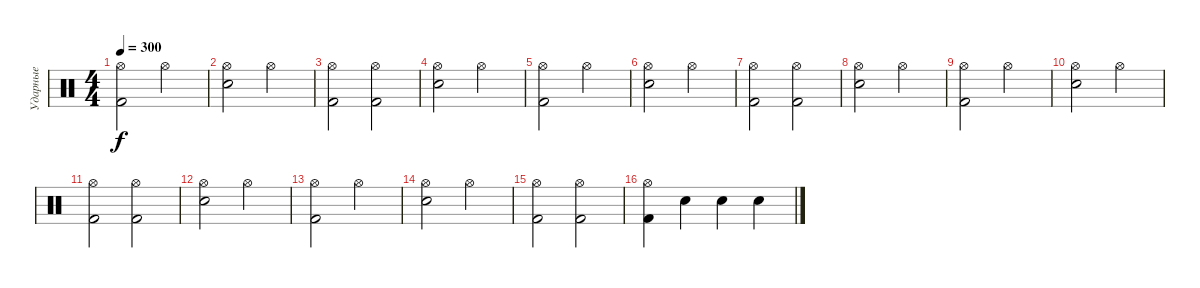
\track ("Ударные" "Ударные") {instrument percussion}
\staff {score}
\articulation defaults
\ts (4 4)
\tempo 300
\clef neutral
\ks c
("Hi-Hat (open)" "Kick (hit) 2").2{dy f} "Hi-Hat (open)".2 |
("Hi-Hat (open)" "Snare (hit) 2").2 "Hi-Hat (open)".2 |
("Hi-Hat (open)" "Kick (hit) 2").2 ("Hi-Hat (open)" "Kick (hit) 2").2 |
("Hi-Hat (open)" "Snare (hit) 2").2 "Hi-Hat (open)".2 |
("Hi-Hat (open)" "Kick (hit) 2").2 "Hi-Hat (open)".2 |
("Hi-Hat (open)" "Snare (hit) 2").2 "Hi-Hat (open)".2 |
("Hi-Hat (open)" "Kick (hit) 2").2 ("Hi-Hat (open)" "Kick (hit) 2").2 |
("Hi-Hat (open)" "Snare (hit) 2").2 "Hi-Hat (open)".2 |
("Hi-Hat (open)" "Kick (hit) 2").2 "Hi-Hat (open)".2 |
("Hi-Hat (open)" "Snare (hit) 2").2 "Hi-Hat (open)".2 |
("Hi-Hat (open)" "Kick (hit) 2").2 ("Hi-Hat (open)" "Kick (hit) 2").2 |
("Hi-Hat (open)" "Snare (hit) 2").2 "Hi-Hat (open)".2 |
("Hi-Hat (open)" "Kick (hit) 2").2 "Hi-Hat (open)".2 |
("Hi-Hat (open)" "Snare (hit) 2").2 "Hi-Hat (open)".2 |
("Hi-Hat (open)" "Kick (hit) 2").2 ("Hi-Hat (open)" "Kick (hit) 2").2 |
("Hi-Hat (open)" "Kick (hit) 2").4 "Snare (hit) 2".4 "Snare (hit) 2".4 "Snare (hit) 2".4
